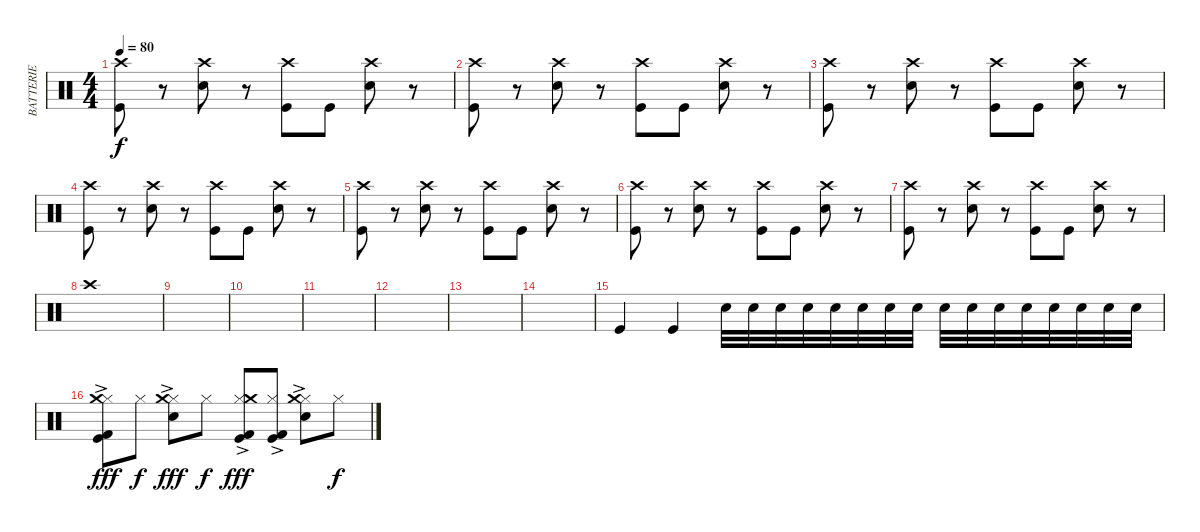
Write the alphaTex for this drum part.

\track ("BATTERIE" "BATTERIE") {instrument percussion}
\staff {score}
\articulation defaults
\ts (4 4)
\tempo 80
\clef neutral
\ks c
("Crash high (hit)" "Kick (hit)").8{dy f} r.8 ("Crash high (hit)" "Electric Snare (hit)").8 r.8 ("Crash high (hit)" "Kick (hit)").8 "Kick (hit)".8 ("Crash high (hit)" "Electric Snare (hit)").8 r.8 |
("Crash high (hit)" "Kick (hit)").8 r.8 ("Crash high (hit)" "Electric Snare (hit)").8 r.8 ("Crash high (hit)" "Kick (hit)").8 "Kick (hit)".8 ("Crash high (hit)" "Electric Snare (hit)").8 r.8 |
("Crash high (hit)" "Kick (hit)").8 r.8 ("Crash high (hit)" "Electric Snare (hit)").8 r.8 ("Crash high (hit)" "Kick (hit)").8 "Kick (hit)".8 ("Crash high (hit)" "Electric Snare (hit)").8 r.8 |
("Crash high (hit)" "Kick (hit)").8 r.8 ("Crash high (hit)" "Electric Snare (hit)").8 r.8 ("Crash high (hit)" "Kick (hit)").8 "Kick (hit)".8 ("Crash high (hit)" "Electric Snare (hit)").8 r.8 |
("Crash high (hit)" "Kick (hit)").8 r.8 ("Crash high (hit)" "Electric Snare (hit)").8 r.8 ("Crash high (hit)" "Kick (hit)").8 "Kick (hit)".8 ("Crash high (hit)" "Electric Snare (hit)").8 r.8 |
("Crash high (hit)" "Kick (hit)").8 r.8 ("Crash high (hit)" "Electric Snare (hit)").8 r.8 ("Crash high (hit)" "Kick (hit)").8 "Kick (hit)".8 ("Crash high (hit)" "Electric Snare (hit)").8 r.8 |
("Crash high (hit)" "Kick (hit)").8 r.8 ("Crash high (hit)" "Electric Snare (hit)").8 r.8 ("Crash high (hit)" "Kick (hit)").8 "Kick (hit)".8 ("Crash high (hit)" "Electric Snare (hit)").8 r.8 |
"Crash high (hit)".1 |
|
|
|
|
|
|
"Kick (hit)".4 "Kick (hit)".4 "Electric Snare (hit)".32 "Electric Snare (hit)".32 "Electric Snare (hit)".32 "Electric Snare (hit)".32 "Electric Snare (hit)".32 "Electric Snare (hit)".32 "Electric Snare (hit)".32 "Electric Snare (hit)".32 "Electric Snare (hit)".32 "Electric Snare (hit)".32 "Electric Snare (hit)".32 "Electric Snare (hit)".32 "Electric Snare (hit)".32 "Electric Snare (hit)".32 "Electric Snare (hit)".32 "Electric Snare (hit)".32 |
("Hi-Hat (closed)"{ac} "Crash medium (hit)" "Kick (hit)"{ac} "Kick (hit) 2"{ac}).8{dy fff} "Hi-Hat (closed)".8{dy f} ("Hi-Hat (closed)"{ac} "Electric Snare (hit)" "Crash medium (hit)").8{dy fff} "Hi-Hat (closed)".8{dy f} ("Hi-Hat (closed)"{ac} "Crash medium (hit)" "Kick (hit)"{ac} "Kick (hit) 2"{ac}).8{dy fff} ("Hi-Hat (closed)" "Kick (hit)"{ac} "Kick (hit) 2"{ac}).8 ("Hi-Hat (closed)"{ac} "Electric Snare (hit)" "Crash medium (hit)").8 "Hi-Hat (closed)".8{dy f}
